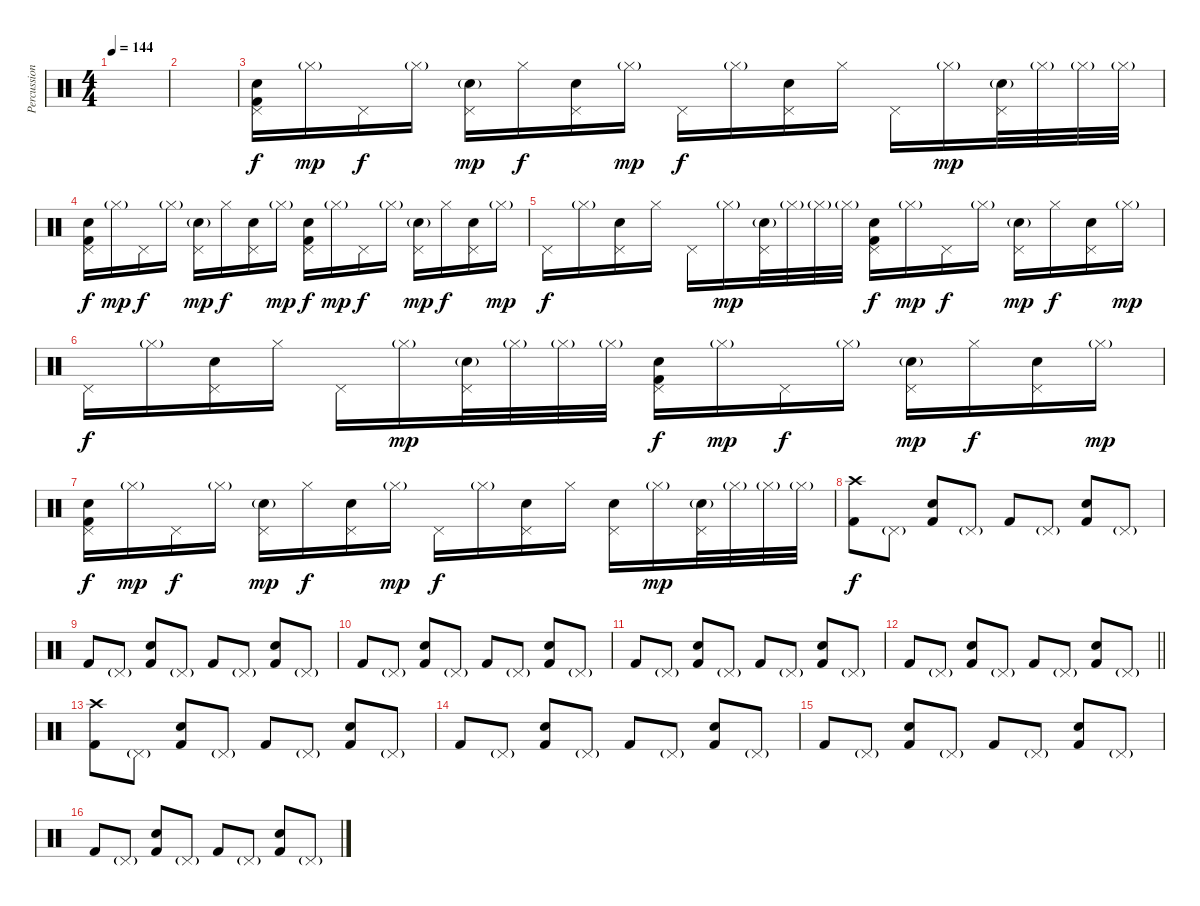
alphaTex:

\track ("Percussion" "Percussion") {instrument percussion}
\staff {score}
\articulation defaults
\ts (4 4)
\tempo 144
\clef neutral
\ks c
|
|
("Pedal Hi-Hat (hit)" "Snare (hit) 2" "Kick (hit) 2").16 "Hi-Hat (closed)"{g}.16{dy mp} "Pedal Hi-Hat (hit)".16{dy f} "Hi-Hat (closed)"{g}.16 ("Pedal Hi-Hat (hit)" "Snare (hit) 2"{g}).16{dy mp} "Hi-Hat (closed)".16{dy f} ("Pedal Hi-Hat (hit)" "Snare (hit) 2").16 "Hi-Hat (closed)"{g}.16{dy mp} "Pedal Hi-Hat (hit)".16{dy f} "Hi-Hat (closed)"{g}.16 ("Pedal Hi-Hat (hit)" "Snare (hit) 2").16 "Hi-Hat (closed)".16 "Pedal Hi-Hat (hit)".16 "Hi-Hat (closed)"{g}.16{dy mp} ("Pedal Hi-Hat (hit)" "Snare (hit) 2"{g}).32 "Hi-Hat (closed)"{g}.32 "Hi-Hat (closed)"{g}.32 "Hi-Hat (closed)"{g}.32 |
("Pedal Hi-Hat (hit)" "Snare (hit) 2" "Kick (hit) 2").16{dy f} "Hi-Hat (closed)"{g}.16{dy mp} "Pedal Hi-Hat (hit)".16{dy f} "Hi-Hat (closed)"{g}.16 ("Pedal Hi-Hat (hit)" "Snare (hit) 2"{g}).16{dy mp} "Hi-Hat (closed)".16{dy f} ("Pedal Hi-Hat (hit)" "Snare (hit) 2").16 "Hi-Hat (closed)"{g}.16{dy mp} ("Pedal Hi-Hat (hit)" "Snare (hit) 2" "Kick (hit) 2").16{dy f} "Hi-Hat (closed)"{g}.16{dy mp} "Pedal Hi-Hat (hit)".16{dy f} "Hi-Hat (closed)"{g}.16 ("Pedal Hi-Hat (hit)" "Snare (hit) 2"{g}).16{dy mp} "Hi-Hat (closed)".16{dy f} ("Pedal Hi-Hat (hit)" "Snare (hit) 2").16 "Hi-Hat (closed)"{g}.16{dy mp} |
"Pedal Hi-Hat (hit)".16{dy f} "Hi-Hat (closed)"{g}.16 ("Pedal Hi-Hat (hit)" "Snare (hit) 2").16 "Hi-Hat (closed)".16 "Pedal Hi-Hat (hit)".16 "Hi-Hat (closed)"{g}.16{dy mp} ("Pedal Hi-Hat (hit)" "Snare (hit) 2"{g}).32 "Hi-Hat (closed)"{g}.32 "Hi-Hat (closed)"{g}.32 "Hi-Hat (closed)"{g}.32 ("Pedal Hi-Hat (hit)" "Snare (hit) 2" "Kick (hit) 2").16{dy f} "Hi-Hat (closed)"{g}.16{dy mp} "Pedal Hi-Hat (hit)".16{dy f} "Hi-Hat (closed)"{g}.16 ("Pedal Hi-Hat (hit)" "Snare (hit) 2"{g}).16{dy mp} "Hi-Hat (closed)".16{dy f} ("Pedal Hi-Hat (hit)" "Snare (hit) 2").16 "Hi-Hat (closed)"{g}.16{dy mp} |
"Pedal Hi-Hat (hit)".16{dy f} "Hi-Hat (closed)"{g}.16 ("Pedal Hi-Hat (hit)" "Snare (hit) 2").16 "Hi-Hat (closed)".16 "Pedal Hi-Hat (hit)".16 "Hi-Hat (closed)"{g}.16{dy mp} ("Pedal Hi-Hat (hit)" "Snare (hit) 2"{g}).32 "Hi-Hat (closed)"{g}.32 "Hi-Hat (closed)"{g}.32 "Hi-Hat (closed)"{g}.32 ("Pedal Hi-Hat (hit)" "Snare (hit) 2" "Kick (hit) 2").16{dy f} "Hi-Hat (closed)"{g}.16{dy mp} "Pedal Hi-Hat (hit)".16{dy f} "Hi-Hat (closed)"{g}.16 ("Pedal Hi-Hat (hit)" "Snare (hit) 2"{g}).16{dy mp} "Hi-Hat (closed)".16{dy f} ("Pedal Hi-Hat (hit)" "Snare (hit) 2").16 "Hi-Hat (closed)"{g}.16{dy mp} |
("Pedal Hi-Hat (hit)" "Snare (hit) 2" "Kick (hit) 2").16{dy f} "Hi-Hat (closed)"{g}.16{dy mp} "Pedal Hi-Hat (hit)".16{dy f} "Hi-Hat (closed)"{g}.16 ("Pedal Hi-Hat (hit)" "Snare (hit) 2"{g}).16{dy mp} "Hi-Hat (closed)".16{dy f} ("Pedal Hi-Hat (hit)" "Snare (hit) 2").16 "Hi-Hat (closed)"{g}.16{dy mp} "Pedal Hi-Hat (hit)".16{dy f} "Hi-Hat (closed)"{g}.16 ("Pedal Hi-Hat (hit)" "Snare (hit) 2").16 "Hi-Hat (closed)".16 ("Pedal Hi-Hat (hit)" "Electric Snare (hit)").16 "Hi-Hat (closed)"{g}.16{dy mp} ("Pedal Hi-Hat (hit)" "Snare (hit) 2"{g}).32 "Hi-Hat (closed)"{g}.32 "Hi-Hat (closed)"{g}.32 "Hi-Hat (closed)"{g}.32 |
("Crash high (hit)" "Kick (hit) 2").8{dy f} "Pedal Hi-Hat (hit)"{g}.8 ("Electric Snare (hit)" "Kick (hit) 2").8 "Pedal Hi-Hat (hit)"{g}.8 "Kick (hit) 2".8 "Pedal Hi-Hat (hit)"{g}.8 ("Electric Snare (hit)" "Kick (hit) 2").8 "Pedal Hi-Hat (hit)"{g}.8 |
"Kick (hit) 2".8 "Pedal Hi-Hat (hit)"{g}.8 ("Electric Snare (hit)" "Kick (hit) 2").8 "Pedal Hi-Hat (hit)"{g}.8 "Kick (hit) 2".8 "Pedal Hi-Hat (hit)"{g}.8 ("Electric Snare (hit)" "Kick (hit) 2").8 "Pedal Hi-Hat (hit)"{g}.8 |
"Kick (hit) 2".8 "Pedal Hi-Hat (hit)"{g}.8 ("Electric Snare (hit)" "Kick (hit) 2").8 "Pedal Hi-Hat (hit)"{g}.8 "Kick (hit) 2".8 "Pedal Hi-Hat (hit)"{g}.8 ("Electric Snare (hit)" "Kick (hit) 2").8 "Pedal Hi-Hat (hit)"{g}.8 |
"Kick (hit) 2".8 "Pedal Hi-Hat (hit)"{g}.8 ("Electric Snare (hit)" "Kick (hit) 2").8 "Pedal Hi-Hat (hit)"{g}.8 "Kick (hit) 2".8 "Pedal Hi-Hat (hit)"{g}.8 ("Electric Snare (hit)" "Kick (hit) 2").8 "Pedal Hi-Hat (hit)"{g}.8 |
\barLineRight lightlight "Kick (hit) 2".8 "Pedal Hi-Hat (hit)"{g}.8
("Electric Snare (hit)" "Kick (hit) 2").8 "Pedal Hi-Hat (hit)"{g}.8 "Kick (hit) 2".8 "Pedal Hi-Hat (hit)"{g}.8 ("Electric Snare (hit)" "Kick (hit) 2").8 "Pedal Hi-Hat (hit)"{g}.8 |
("Crash high (hit)" "Kick (hit) 2").8 "Pedal Hi-Hat (hit)"{g}.8 ("Electric Snare (hit)" "Kick (hit) 2").8 "Pedal Hi-Hat (hit)"{g}.8 "Kick (hit) 2".8 "Pedal Hi-Hat (hit)"{g}.8 ("Electric Snare (hit)" "Kick (hit) 2").8 "Pedal Hi-Hat (hit)"{g}.8 |
"Kick (hit) 2".8 "Pedal Hi-Hat (hit)"{g}.8 ("Electric Snare (hit)" "Kick (hit) 2").8 "Pedal Hi-Hat (hit)"{g}.8 "Kick (hit) 2".8 "Pedal Hi-Hat (hit)"{g}.8 ("Electric Snare (hit)" "Kick (hit) 2").8 "Pedal Hi-Hat (hit)"{g}.8 |
"Kick (hit) 2".8 "Pedal Hi-Hat (hit)"{g}.8 ("Electric Snare (hit)" "Kick (hit) 2").8 "Pedal Hi-Hat (hit)"{g}.8 "Kick (hit) 2".8 "Pedal Hi-Hat (hit)"{g}.8 ("Electric Snare (hit)" "Kick (hit) 2").8 "Pedal Hi-Hat (hit)"{g}.8 |
"Kick (hit) 2".8 "Pedal Hi-Hat (hit)"{g}.8 ("Electric Snare (hit)" "Kick (hit) 2").8 "Pedal Hi-Hat (hit)"{g}.8 "Kick (hit) 2".8 "Pedal Hi-Hat (hit)"{g}.8 ("Electric Snare (hit)" "Kick (hit) 2").8 "Pedal Hi-Hat (hit)"{g}.8
